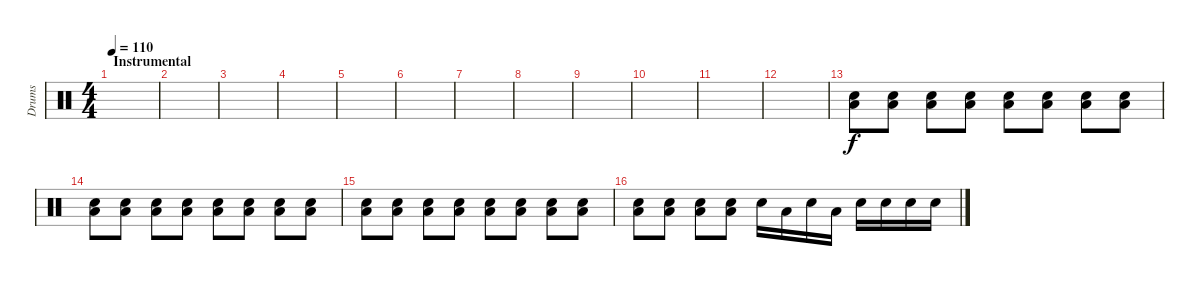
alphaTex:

\track ("Drums" "Drums") {instrument percussion}
\staff {score}
\articulation defaults
\ts (4 4)
\section ("" "Instrumental")
\tempo 110
\clef neutral
\ks c
|
|
|
|
|
|
|
|
|
|
|
|
("Low Tom (hit)" "Snare (hit) 2").8{volume 4} ("Low Tom (hit)" "Snare (hit) 2").8 ("Low Tom (hit)" "Snare (hit) 2").8 ("Low Tom (hit)" "Snare (hit) 2").8 ("Low Tom (hit)" "Snare (hit) 2").8 ("Low Tom (hit)" "Snare (hit) 2").8 ("Low Tom (hit)" "Snare (hit) 2").8 ("Low Tom (hit)" "Snare (hit) 2").8 |
("Low Tom (hit)" "Snare (hit) 2").8{volume 8} ("Low Tom (hit)" "Snare (hit) 2").8 ("Low Tom (hit)" "Snare (hit) 2").8 ("Low Tom (hit)" "Snare (hit) 2").8 ("Low Tom (hit)" "Snare (hit) 2").8 ("Low Tom (hit)" "Snare (hit) 2").8 ("Low Tom (hit)" "Snare (hit) 2").8 ("Low Tom (hit)" "Snare (hit) 2").8 |
("Low Tom (hit)" "Snare (hit) 2").8{volume 13} ("Low Tom (hit)" "Snare (hit) 2").8 ("Low Tom (hit)" "Snare (hit) 2").8 ("Low Tom (hit)" "Snare (hit) 2").8 ("Low Tom (hit)" "Snare (hit) 2").8 ("Low Tom (hit)" "Snare (hit) 2").8 ("Low Tom (hit)" "Snare (hit) 2").8 ("Low Tom (hit)" "Snare (hit) 2").8 |
("Low Tom (hit)" "Snare (hit) 2").8 ("Low Tom (hit)" "Snare (hit) 2").8 ("Low Tom (hit)" "Snare (hit) 2").8 ("Low Tom (hit)" "Snare (hit) 2").8 "Snare (hit) 2".16 "Low Tom (hit)".16 "Snare (hit) 2".16 "Low Tom (hit)".16 "Snare (hit) 2".16 "Snare (hit) 2".16 "Snare (hit) 2".16 "Snare (hit) 2".16
